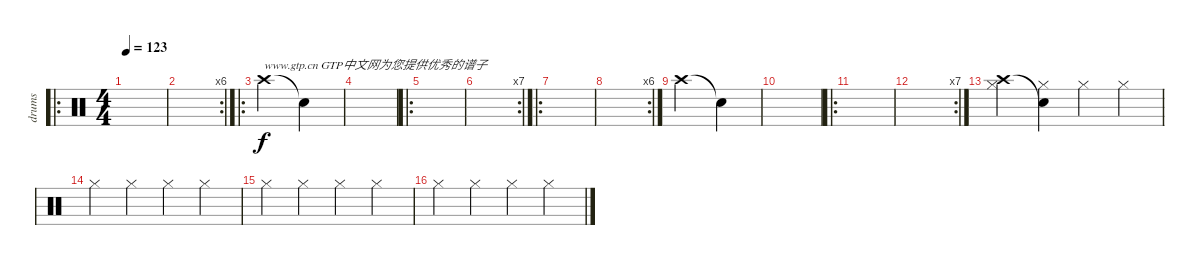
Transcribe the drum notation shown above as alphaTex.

\track ("drums" "drums") {instrument percussion}
\staff {score}
\articulation defaults
\ro
\ts (4 4)
\tempo 123
\clef neutral
\ks c
|
\rc 6
|
\ro "Crash high (hit)".4{txt "www.gtp.cn GTP中文网为您提供优秀的谱子"} "Snare (hit)"{t}.4
|
|
\ro
|
\rc 7
|
\ro
|
\rc 6
|
"Crash high (hit)".4 "Snare (hit)"{t}.4 |
|
\ro
|
\rc 7
|
("Crash high (hit)" "Hi-Hat (closed)").4 ("Snare (hit)"{t} "Hi-Hat (closed)").4 "Hi-Hat (closed)".4 "Hi-Hat (closed)".4 |
"Hi-Hat (closed)".4 "Hi-Hat (closed)".4 "Hi-Hat (closed)".4 "Hi-Hat (closed)".4 |
"Hi-Hat (closed)".4 "Hi-Hat (closed)".4 "Hi-Hat (closed)".4 "Hi-Hat (closed)".4 |
"Hi-Hat (closed)".4 "Hi-Hat (closed)".4 "Hi-Hat (closed)".4 "Hi-Hat (closed)".4
